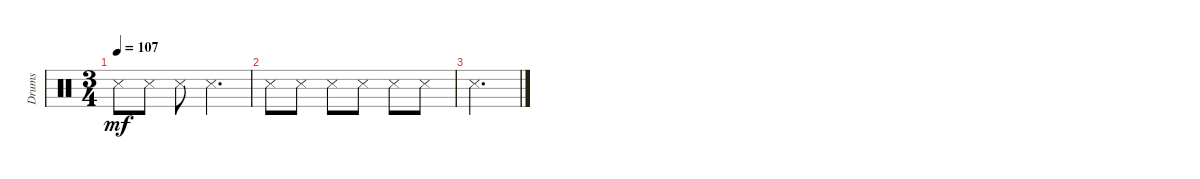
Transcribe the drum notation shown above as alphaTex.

\track ("Drums" "Drums") {instrument percussion}
\staff {score}
\articulation defaults
\ts (3 4)
\tempo 107
\clef neutral
\ks c "Snare (side stick) 3".8{dy mf} "Snare (side stick) 3".8 "Snare (side stick) 3".8 "Snare (side stick) 3".4{d}
|
"Snare (side stick) 3".8 "Snare (side stick) 3".8 "Snare (side stick) 3".8 "Snare (side stick) 3".8 "Snare (side stick) 3".8 "Snare (side stick) 3".8 |
"Snare (side stick) 3".2{d}
